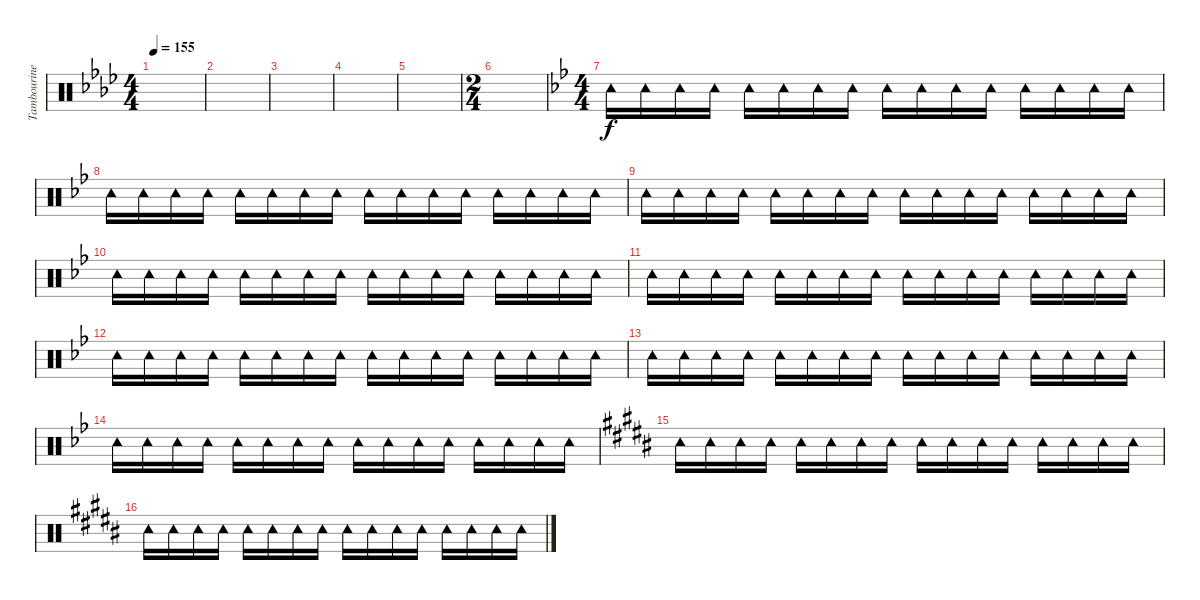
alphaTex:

\track ("Tambourine" "Tambourine") {instrument percussion}
\staff {score}
\articulation defaults
\ts (4 4)
\tempo 155
\clef neutral
\ks ab
|
|
|
|
|
\ts (2 4)
|
\ts (4 4)
\ks bb "Tambourine (hit)".16 "Tambourine (hit)".16 "Tambourine (hit)".16 "Tambourine (hit)".16 "Tambourine (hit)".16 "Tambourine (hit)".16 "Tambourine (hit)".16 "Tambourine (hit)".16 "Tambourine (hit)".16 "Tambourine (hit)".16 "Tambourine (hit)".16 "Tambourine (hit)".16 "Tambourine (hit)".16 "Tambourine (hit)".16 "Tambourine (hit)".16 "Tambourine (hit)".16
|
"Tambourine (hit)".16 "Tambourine (hit)".16 "Tambourine (hit)".16 "Tambourine (hit)".16 "Tambourine (hit)".16 "Tambourine (hit)".16 "Tambourine (hit)".16 "Tambourine (hit)".16 "Tambourine (hit)".16 "Tambourine (hit)".16 "Tambourine (hit)".16 "Tambourine (hit)".16 "Tambourine (hit)".16 "Tambourine (hit)".16 "Tambourine (hit)".16 "Tambourine (hit)".16 |
"Tambourine (hit)".16 "Tambourine (hit)".16 "Tambourine (hit)".16 "Tambourine (hit)".16 "Tambourine (hit)".16 "Tambourine (hit)".16 "Tambourine (hit)".16 "Tambourine (hit)".16 "Tambourine (hit)".16 "Tambourine (hit)".16 "Tambourine (hit)".16 "Tambourine (hit)".16 "Tambourine (hit)".16 "Tambourine (hit)".16 "Tambourine (hit)".16 "Tambourine (hit)".16 |
"Tambourine (hit)".16 "Tambourine (hit)".16 "Tambourine (hit)".16 "Tambourine (hit)".16 "Tambourine (hit)".16 "Tambourine (hit)".16 "Tambourine (hit)".16 "Tambourine (hit)".16 "Tambourine (hit)".16 "Tambourine (hit)".16 "Tambourine (hit)".16 "Tambourine (hit)".16 "Tambourine (hit)".16 "Tambourine (hit)".16 "Tambourine (hit)".16 "Tambourine (hit)".16 |
"Tambourine (hit)".16 "Tambourine (hit)".16 "Tambourine (hit)".16 "Tambourine (hit)".16 "Tambourine (hit)".16 "Tambourine (hit)".16 "Tambourine (hit)".16 "Tambourine (hit)".16 "Tambourine (hit)".16 "Tambourine (hit)".16 "Tambourine (hit)".16 "Tambourine (hit)".16 "Tambourine (hit)".16 "Tambourine (hit)".16 "Tambourine (hit)".16 "Tambourine (hit)".16 |
"Tambourine (hit)".16 "Tambourine (hit)".16 "Tambourine (hit)".16 "Tambourine (hit)".16 "Tambourine (hit)".16 "Tambourine (hit)".16 "Tambourine (hit)".16 "Tambourine (hit)".16 "Tambourine (hit)".16 "Tambourine (hit)".16 "Tambourine (hit)".16 "Tambourine (hit)".16 "Tambourine (hit)".16 "Tambourine (hit)".16 "Tambourine (hit)".16 "Tambourine (hit)".16 |
"Tambourine (hit)".16 "Tambourine (hit)".16 "Tambourine (hit)".16 "Tambourine (hit)".16 "Tambourine (hit)".16 "Tambourine (hit)".16 "Tambourine (hit)".16 "Tambourine (hit)".16 "Tambourine (hit)".16 "Tambourine (hit)".16 "Tambourine (hit)".16 "Tambourine (hit)".16 "Tambourine (hit)".16 "Tambourine (hit)".16 "Tambourine (hit)".16 "Tambourine (hit)".16 |
"Tambourine (hit)".16 "Tambourine (hit)".16 "Tambourine (hit)".16 "Tambourine (hit)".16 "Tambourine (hit)".16 "Tambourine (hit)".16 "Tambourine (hit)".16 "Tambourine (hit)".16 "Tambourine (hit)".16 "Tambourine (hit)".16 "Tambourine (hit)".16 "Tambourine (hit)".16 "Tambourine (hit)".16 "Tambourine (hit)".16 "Tambourine (hit)".16 "Tambourine (hit)".16 |
\ks b "Tambourine (hit)".16 "Tambourine (hit)".16 "Tambourine (hit)".16 "Tambourine (hit)".16 "Tambourine (hit)".16 "Tambourine (hit)".16 "Tambourine (hit)".16 "Tambourine (hit)".16 "Tambourine (hit)".16 "Tambourine (hit)".16 "Tambourine (hit)".16 "Tambourine (hit)".16 "Tambourine (hit)".16 "Tambourine (hit)".16 "Tambourine (hit)".16 "Tambourine (hit)".16
|
"Tambourine (hit)".16 "Tambourine (hit)".16 "Tambourine (hit)".16 "Tambourine (hit)".16 "Tambourine (hit)".16 "Tambourine (hit)".16 "Tambourine (hit)".16 "Tambourine (hit)".16 "Tambourine (hit)".16 "Tambourine (hit)".16 "Tambourine (hit)".16 "Tambourine (hit)".16 "Tambourine (hit)".16 "Tambourine (hit)".16 "Tambourine (hit)".16 "Tambourine (hit)".16
